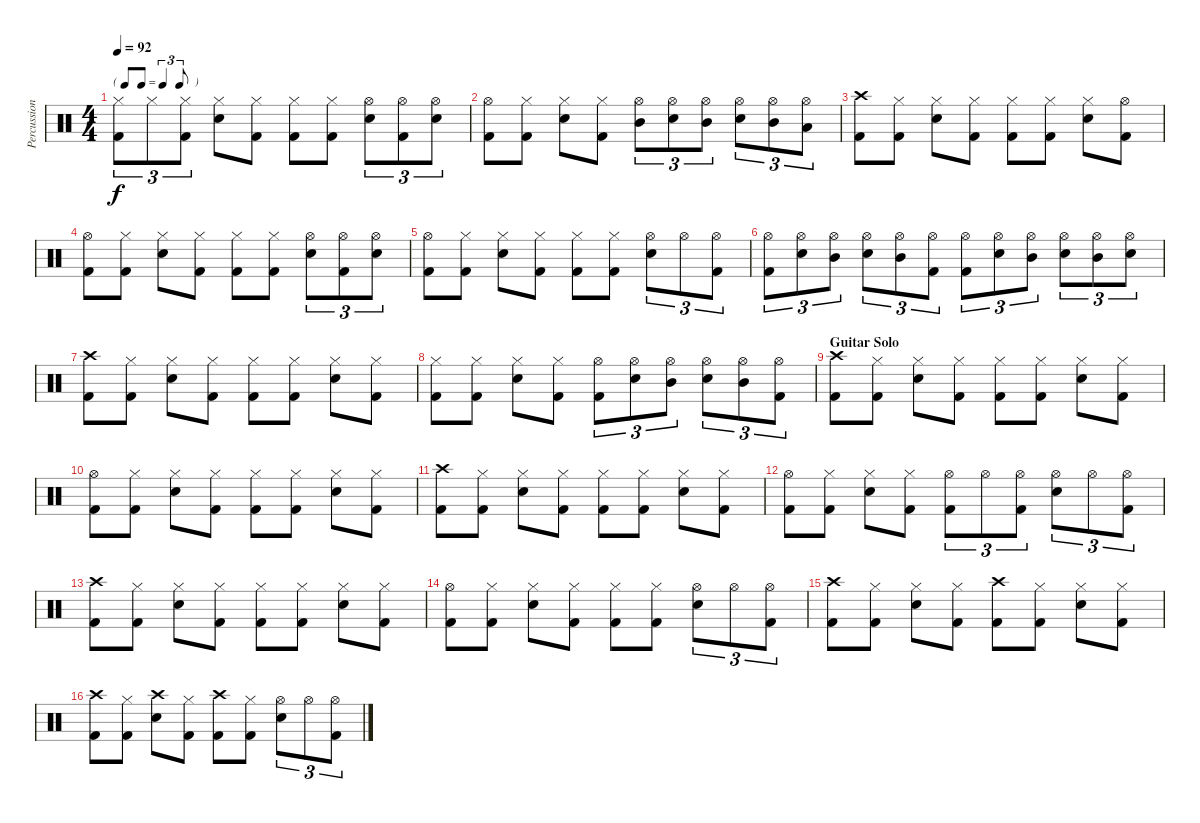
\track ("Percussion" "Percussion") {instrument percussion}
\staff {score}
\articulation defaults
\ts (4 4)
\tf triplet8th
\tempo 92
\clef neutral
\ks c
("Hi-Hat (closed)" "Kick (hit) 2").8{tu (3 2) dy f} "Hi-Hat (closed)".8{tu (3 2)} ("Hi-Hat (closed)" "Kick (hit) 2").8{tu (3 2)} ("Hi-Hat (closed)" "Electric Snare (hit)").8 ("Hi-Hat (closed)" "Kick (hit) 2").8 ("Hi-Hat (closed)" "Kick (hit) 2").8 ("Hi-Hat (closed)" "Kick (hit) 2").8 ("Hi-Hat (open)" "Electric Snare (hit)").8{tu (3 2)} ("Hi-Hat (open)" "Kick (hit) 2").8{tu (3 2)} ("Hi-Hat (open)" "Electric Snare (hit)").8{tu (3 2)} |
("Hi-Hat (open)" "Kick (hit) 2").8 ("Hi-Hat (closed)" "Kick (hit) 2").8 ("Hi-Hat (closed)" "Electric Snare (hit)").8 ("Hi-Hat (closed)" "Kick (hit) 2").8 ("Hi-Hat (open)" "Mid Tom (hit)").8{tu (3 2)} ("Hi-Hat (open)" "Electric Snare (hit)").8{tu (3 2)} ("Hi-Hat (open)" "Mid Tom (hit)").8{tu (3 2)} ("Hi-Hat (open)" "Electric Snare (hit)").8{tu (3 2)} ("Hi-Hat (open)" "Mid Tom (hit)").8{tu (3 2)} ("Hi-Hat (open)" "Low Tom (hit)").8{tu (3 2)} |
("Crash high (hit)" "Kick (hit) 2").8 ("Hi-Hat (closed)" "Kick (hit) 2").8 ("Hi-Hat (closed)" "Electric Snare (hit)").8 ("Hi-Hat (closed)" "Kick (hit) 2").8 ("Hi-Hat (closed)" "Kick (hit) 2").8 ("Hi-Hat (closed)" "Kick (hit) 2").8 ("Hi-Hat (closed)" "Electric Snare (hit)").8 ("Hi-Hat (open)" "Kick (hit) 2").8 |
("Hi-Hat (open)" "Kick (hit) 2").8 ("Hi-Hat (closed)" "Kick (hit) 2").8 ("Hi-Hat (closed)" "Electric Snare (hit)").8 ("Hi-Hat (closed)" "Kick (hit) 2").8 ("Hi-Hat (closed)" "Kick (hit) 2").8 ("Hi-Hat (closed)" "Kick (hit) 2").8 ("Hi-Hat (open)" "Electric Snare (hit)").8{tu (3 2)} ("Hi-Hat (open)" "Kick (hit) 2").8{tu (3 2)} ("Hi-Hat (open)" "Electric Snare (hit)").8{tu (3 2)} |
("Hi-Hat (open)" "Kick (hit) 2").8 ("Hi-Hat (closed)" "Kick (hit) 2").8 ("Hi-Hat (closed)" "Electric Snare (hit)").8 ("Hi-Hat (closed)" "Kick (hit) 2").8 ("Hi-Hat (closed)" "Kick (hit) 2").8 ("Hi-Hat (closed)" "Kick (hit) 2").8 ("Hi-Hat (open)" "Electric Snare (hit)").8{tu (3 2)} "Hi-Hat (open)".8{tu (3 2)} ("Hi-Hat (open)" "Kick (hit) 2").8{tu (3 2)} |
("Hi-Hat (open)" "Kick (hit) 2").8{tu (3 2)} ("Hi-Hat (open)" "Electric Snare (hit)").8{tu (3 2)} ("Hi-Hat (open)" "Mid Tom (hit)").8{tu (3 2)} ("Hi-Hat (open)" "Electric Snare (hit)").8{tu (3 2)} ("Hi-Hat (open)" "Mid Tom (hit)").8{tu (3 2)} ("Hi-Hat (open)" "Kick (hit) 2").8{tu (3 2)} ("Hi-Hat (open)" "Kick (hit) 2").8{tu (3 2)} ("Hi-Hat (open)" "Electric Snare (hit)").8{tu (3 2)} ("Hi-Hat (open)" "Mid Tom (hit)").8{tu (3 2)} ("Hi-Hat (open)" "Electric Snare (hit)").8{tu (3 2)} ("Hi-Hat (open)" "Mid Tom (hit)").8{tu (3 2)} ("Hi-Hat (open)" "Electric Snare (hit)").8{tu (3 2)} |
("Crash high (hit)" "Kick (hit) 2").8 ("Hi-Hat (closed)" "Kick (hit) 2").8 ("Hi-Hat (closed)" "Electric Snare (hit)").8 ("Hi-Hat (closed)" "Kick (hit) 2").8 ("Hi-Hat (closed)" "Kick (hit) 2").8 ("Hi-Hat (closed)" "Kick (hit) 2").8 ("Hi-Hat (closed)" "Electric Snare (hit)").8 ("Hi-Hat (closed)" "Kick (hit) 2").8 |
("Hi-Hat (closed)" "Kick (hit) 2").8 ("Hi-Hat (closed)" "Kick (hit) 2").8 ("Hi-Hat (closed)" "Electric Snare (hit)").8 ("Hi-Hat (closed)" "Kick (hit) 2").8 ("Hi-Hat (open)" "Kick (hit) 2").8{tu (3 2)} ("Hi-Hat (open)" "Electric Snare (hit)").8{tu (3 2)} ("Hi-Hat (open)" "Mid Tom (hit)").8{tu (3 2)} ("Hi-Hat (open)" "Electric Snare (hit)").8{tu (3 2)} ("Hi-Hat (open)" "Mid Tom (hit)").8{tu (3 2)} ("Hi-Hat (open)" "Kick (hit) 2").8{tu (3 2)} |
\section ("" "Guitar Solo")
("Crash high (hit)" "Kick (hit) 2").8 ("Hi-Hat (closed)" "Kick (hit) 2").8 ("Hi-Hat (closed)" "Electric Snare (hit)").8 ("Hi-Hat (closed)" "Kick (hit) 2").8 ("Hi-Hat (closed)" "Kick (hit) 2").8 ("Hi-Hat (closed)" "Kick (hit) 2").8 ("Hi-Hat (closed)" "Electric Snare (hit)").8 ("Hi-Hat (closed)" "Kick (hit) 2").8 |
("Hi-Hat (open)" "Kick (hit) 2").8 ("Hi-Hat (closed)" "Kick (hit) 2").8 ("Hi-Hat (closed)" "Electric Snare (hit)").8 ("Hi-Hat (closed)" "Kick (hit) 2").8 ("Hi-Hat (closed)" "Kick (hit) 2").8 ("Hi-Hat (closed)" "Kick (hit) 2").8 ("Hi-Hat (closed)" "Electric Snare (hit)").8 ("Hi-Hat (closed)" "Kick (hit) 2").8 |
("Crash high (hit)" "Kick (hit) 2").8 ("Hi-Hat (closed)" "Kick (hit) 2").8 ("Hi-Hat (closed)" "Electric Snare (hit)").8 ("Hi-Hat (closed)" "Kick (hit) 2").8 ("Hi-Hat (closed)" "Kick (hit) 2").8 ("Hi-Hat (closed)" "Kick (hit) 2").8 ("Hi-Hat (closed)" "Electric Snare (hit)").8 ("Hi-Hat (closed)" "Kick (hit) 2").8 |
("Hi-Hat (open)" "Kick (hit) 2").8 ("Hi-Hat (closed)" "Kick (hit) 2").8 ("Hi-Hat (closed)" "Electric Snare (hit)").8 ("Hi-Hat (closed)" "Kick (hit) 2").8 ("Hi-Hat (open)" "Kick (hit) 2").8{tu (3 2)} "Hi-Hat (open)".8{tu (3 2)} ("Hi-Hat (open)" "Kick (hit) 2").8{tu (3 2)} ("Hi-Hat (open)" "Electric Snare (hit)").8{tu (3 2)} "Hi-Hat (open)".8{tu (3 2)} ("Hi-Hat (open)" "Kick (hit) 2").8{tu (3 2)} |
("Crash high (hit)" "Kick (hit) 2").8 ("Hi-Hat (closed)" "Kick (hit) 2").8 ("Hi-Hat (closed)" "Electric Snare (hit)").8 ("Hi-Hat (closed)" "Kick (hit) 2").8 ("Hi-Hat (closed)" "Kick (hit) 2").8 ("Hi-Hat (closed)" "Kick (hit) 2").8 ("Hi-Hat (closed)" "Electric Snare (hit)").8 ("Hi-Hat (closed)" "Kick (hit) 2").8 |
("Hi-Hat (open)" "Kick (hit) 2").8 ("Hi-Hat (closed)" "Kick (hit) 2").8 ("Hi-Hat (closed)" "Electric Snare (hit)").8 ("Hi-Hat (closed)" "Kick (hit) 2").8 ("Hi-Hat (closed)" "Kick (hit) 2").8 ("Hi-Hat (closed)" "Kick (hit) 2").8 ("Hi-Hat (open)" "Electric Snare (hit)").8{tu (3 2)} "Hi-Hat (open)".8{tu (3 2)} ("Hi-Hat (open)" "Kick (hit) 2").8{tu (3 2)} |
("Crash high (hit)" "Kick (hit) 2").8 ("Hi-Hat (closed)" "Kick (hit) 2").8 ("Hi-Hat (closed)" "Electric Snare (hit)").8 ("Hi-Hat (closed)" "Kick (hit) 2").8 ("Crash high (hit)" "Kick (hit) 2").8 ("Hi-Hat (closed)" "Kick (hit) 2").8 ("Hi-Hat (closed)" "Electric Snare (hit)").8 ("Hi-Hat (closed)" "Kick (hit) 2").8 |
("Crash high (hit)" "Kick (hit) 2").8 ("Hi-Hat (closed)" "Kick (hit) 2").8 ("Crash high (hit)" "Electric Snare (hit)").8 ("Hi-Hat (closed)" "Kick (hit) 2").8 ("Crash high (hit)" "Kick (hit) 2").8 ("Hi-Hat (closed)" "Kick (hit) 2").8 ("Hi-Hat (open)" "Electric Snare (hit)").8{tu (3 2)} "Hi-Hat (open)".8{tu (3 2)} ("Hi-Hat (open)" "Kick (hit) 2").8{tu (3 2)}
